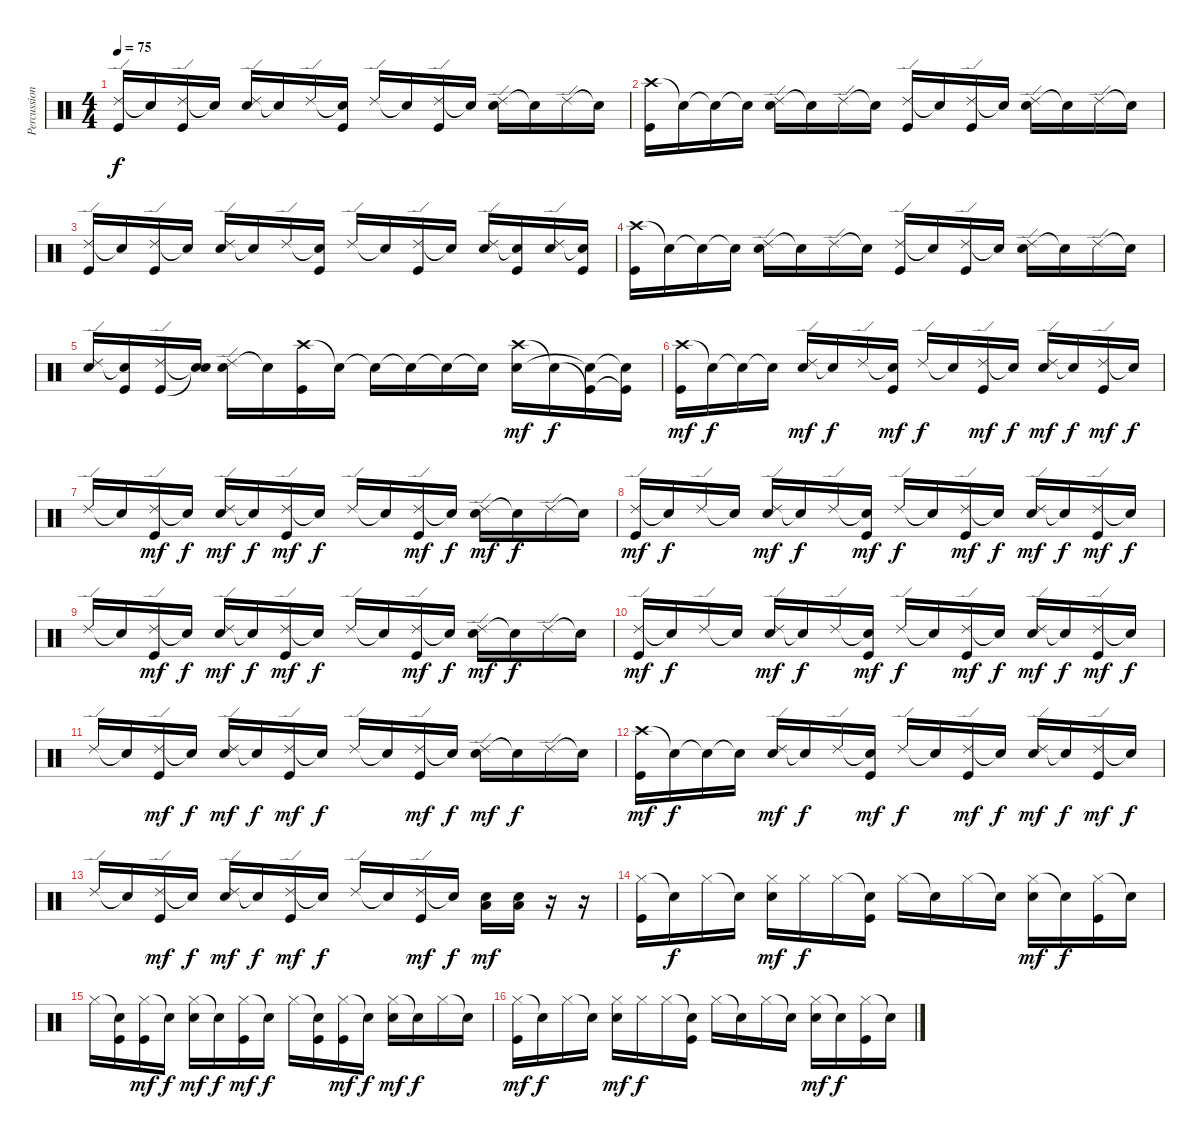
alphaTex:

\track ("Percussion" "Percussion") {instrument percussion}
\staff {score}
\articulation defaults
\ts (4 4)
\tempo 75
\clef neutral
\ks c
("Ride (edge) 2" "Kick (hit)").16{dy f} "Snare (hit)"{t}.16 ("Ride (edge) 2" "Kick (hit)").16 "Snare (hit)"{t}.16 ("Ride (edge) 2" "Electric Snare (hit)").16 "Snare (hit)"{t}.16 "Ride (edge) 2".16 ("Snare (hit)"{t} "Kick (hit)").16 "Ride (edge) 2".16 "Snare (hit)"{t}.16 ("Ride (edge) 2" "Kick (hit)").16 "Snare (hit)"{t}.16 ("Ride (edge) 2" "Electric Snare (hit)").16 "Snare (hit)"{t}.16 "Ride (edge) 2".16 "Snare (hit)"{t}.16 |
("Crash high (hit)" "Kick (hit)").16 "Snare (hit)"{t}.16 "Snare (hit)"{t}.16 "Snare (hit)"{t}.16 ("Ride (edge) 2" "Electric Snare (hit)").16 "Snare (hit)"{t}.16 "Ride (edge) 2".16 "Snare (hit)"{t}.16 ("Ride (edge) 2" "Kick (hit)").16 "Snare (hit)"{t}.16 ("Ride (edge) 2" "Kick (hit)").16 "Snare (hit)"{t}.16 ("Ride (edge) 2" "Electric Snare (hit)").16 "Snare (hit)"{t}.16 "Ride (edge) 2".16 "Snare (hit)"{t}.16 |
("Ride (edge) 2" "Kick (hit)").16 "Snare (hit)"{t}.16 ("Ride (edge) 2" "Kick (hit)").16 "Snare (hit)"{t}.16 ("Ride (edge) 2" "Electric Snare (hit)").16 "Snare (hit)"{t}.16 "Ride (edge) 2".16 ("Snare (hit)"{t} "Kick (hit)").16 "Ride (edge) 2".16 "Snare (hit)"{t}.16 ("Ride (edge) 2" "Kick (hit)").16 "Snare (hit)"{t}.16 ("Ride (edge) 2" "Electric Snare (hit)").16 ("Snare (hit)"{t} "Kick (hit)").16 ("Ride (edge) 2" "Electric Snare (hit)").16 ("Snare (hit)"{t} "Kick (hit)").16 |
("Crash high (hit)" "Kick (hit)").16 "Snare (hit)"{t}.16 "Snare (hit)"{t}.16 "Snare (hit)"{t}.16 ("Ride (edge) 2" "Electric Snare (hit)").16 "Snare (hit)"{t}.16 "Ride (edge) 2".16 "Snare (hit)"{t}.16 ("Ride (edge) 2" "Kick (hit)").16 "Snare (hit)"{t}.16 ("Ride (edge) 2" "Kick (hit)").16 "Snare (hit)"{t}.16 ("Ride (edge) 2" "Electric Snare (hit)").16 "Snare (hit)"{t}.16 "Ride (edge) 2".16 "Snare (hit)"{t}.16 |
("Ride (edge) 2" "Electric Snare (hit)").16 ("Snare (hit)"{t} "Kick (hit)").16 ("Ride (edge) 2" "Kick (hit)").16 ("Snare (hit)"{t} "Electric Snare (hit)"{t}).16 ("Ride (edge) 2" "Electric Snare (hit)").16 "Snare (hit)"{t}.16 ("Crash high (hit)" "Kick (hit)").16 "Snare (hit)"{t}.16 "Snare (hit)"{t}.16 "Snare (hit)"{t}.16 "Snare (hit)"{t}.16 "Snare (hit)"{t}.16 ("Crash high (hit)" "Electric Snare (hit)").16{dy mf} "Snare (hit)"{t}.16{dy f} ("Kick (hit)"{t} "Electric Snare (hit)"{t}).16 ("Kick (hit)"{t} "Electric Snare (hit)"{t}).16 |
("Crash high (hit)" "Kick (hit)").16{dy mf} "Snare (hit)"{t}.16{dy f} "Snare (hit)"{t}.16 "Snare (hit)"{t}.16 ("Ride (edge) 2" "Electric Snare (hit)").16{dy mf} "Snare (hit)"{t}.16{dy f} "Ride (edge) 2".16 ("Snare (hit)"{t} "Kick (hit)").16{dy mf} "Ride (edge) 2".16{dy f} "Snare (hit)"{t}.16 ("Ride (edge) 2" "Kick (hit)").16{dy mf} "Snare (hit)"{t}.16{dy f} ("Ride (edge) 2" "Electric Snare (hit)").16{dy mf} "Snare (hit)"{t}.16{dy f} ("Ride (edge) 2" "Kick (hit)").16{dy mf} "Snare (hit)"{t}.16{dy f} |
"Ride (edge) 2".16 "Snare (hit)"{t}.16 ("Ride (edge) 2" "Kick (hit)").16{dy mf} "Snare (hit)"{t}.16{dy f} ("Ride (edge) 2" "Electric Snare (hit)").16{dy mf} "Snare (hit)"{t}.16{dy f} ("Ride (edge) 2" "Kick (hit)").16{dy mf} "Snare (hit)"{t}.16{dy f} "Ride (edge) 2".16 "Snare (hit)"{t}.16 ("Ride (edge) 2" "Kick (hit)").16{dy mf} "Snare (hit)"{t}.16{dy f} ("Ride (edge) 2" "Electric Snare (hit)").16{dy mf} "Snare (hit)"{t}.16{dy f} "Ride (edge) 2".16 "Snare (hit)"{t}.16 |
("Ride (edge) 2" "Kick (hit)").16{dy mf} "Snare (hit)"{t}.16{dy f} "Ride (edge) 2".16 "Snare (hit)"{t}.16 ("Ride (edge) 2" "Electric Snare (hit)").16{dy mf} "Snare (hit)"{t}.16{dy f} "Ride (edge) 2".16 ("Snare (hit)"{t} "Kick (hit)").16{dy mf} "Ride (edge) 2".16{dy f} "Snare (hit)"{t}.16 ("Ride (edge) 2" "Kick (hit)").16{dy mf} "Snare (hit)"{t}.16{dy f} ("Ride (edge) 2" "Electric Snare (hit)").16{dy mf} "Snare (hit)"{t}.16{dy f} ("Ride (edge) 2" "Kick (hit)").16{dy mf} "Snare (hit)"{t}.16{dy f} |
"Ride (edge) 2".16 "Snare (hit)"{t}.16 ("Ride (edge) 2" "Kick (hit)").16{dy mf} "Snare (hit)"{t}.16{dy f} ("Ride (edge) 2" "Electric Snare (hit)").16{dy mf} "Snare (hit)"{t}.16{dy f} ("Ride (edge) 2" "Kick (hit)").16{dy mf} "Snare (hit)"{t}.16{dy f} "Ride (edge) 2".16 "Snare (hit)"{t}.16 ("Ride (edge) 2" "Kick (hit)").16{dy mf} "Snare (hit)"{t}.16{dy f} ("Ride (edge) 2" "Electric Snare (hit)").16{dy mf} "Snare (hit)"{t}.16{dy f} "Ride (edge) 2".16 "Snare (hit)"{t}.16 |
("Ride (edge) 2" "Kick (hit)").16{dy mf} "Snare (hit)"{t}.16{dy f} "Ride (edge) 2".16 "Snare (hit)"{t}.16 ("Ride (edge) 2" "Electric Snare (hit)").16{dy mf} "Snare (hit)"{t}.16{dy f} "Ride (edge) 2".16 ("Snare (hit)"{t} "Kick (hit)").16{dy mf} "Ride (edge) 2".16{dy f} "Snare (hit)"{t}.16 ("Ride (edge) 2" "Kick (hit)").16{dy mf} "Snare (hit)"{t}.16{dy f} ("Ride (edge) 2" "Electric Snare (hit)").16{dy mf} "Snare (hit)"{t}.16{dy f} ("Ride (edge) 2" "Kick (hit)").16{dy mf} "Snare (hit)"{t}.16{dy f} |
"Ride (edge) 2".16 "Snare (hit)"{t}.16 ("Ride (edge) 2" "Kick (hit)").16{dy mf} "Snare (hit)"{t}.16{dy f} ("Ride (edge) 2" "Electric Snare (hit)").16{dy mf} "Snare (hit)"{t}.16{dy f} ("Ride (edge) 2" "Kick (hit)").16{dy mf} "Snare (hit)"{t}.16{dy f} "Ride (edge) 2".16 "Snare (hit)"{t}.16 ("Ride (edge) 2" "Kick (hit)").16{dy mf} "Snare (hit)"{t}.16{dy f} ("Ride (edge) 2" "Electric Snare (hit)").16{dy mf} "Snare (hit)"{t}.16{dy f} "Ride (edge) 2".16 "Snare (hit)"{t}.16 |
("Crash high (hit)" "Kick (hit)").16{dy mf} "Snare (hit)"{t}.16{dy f} "Snare (hit)"{t}.16 "Snare (hit)"{t}.16 ("Ride (edge) 2" "Electric Snare (hit)").16{dy mf} "Snare (hit)"{t}.16{dy f} "Ride (edge) 2".16 ("Snare (hit)"{t} "Kick (hit)").16{dy mf} "Ride (edge) 2".16{dy f} "Snare (hit)"{t}.16 ("Ride (edge) 2" "Kick (hit)").16{dy mf} "Snare (hit)"{t}.16{dy f} ("Ride (edge) 2" "Electric Snare (hit)").16{dy mf} "Snare (hit)"{t}.16{dy f} ("Ride (edge) 2" "Kick (hit)").16{dy mf} "Snare (hit)"{t}.16{dy f} |
"Ride (edge) 2".16 "Snare (hit)"{t}.16 ("Ride (edge) 2" "Kick (hit)").16{dy mf} "Snare (hit)"{t}.16{dy f} ("Ride (edge) 2" "Electric Snare (hit)").16{dy mf} "Snare (hit)"{t}.16{dy f} ("Ride (edge) 2" "Kick (hit)").16{dy mf} "Snare (hit)"{t}.16{dy f} "Ride (edge) 2".16 "Snare (hit)"{t}.16 ("Ride (edge) 2" "Kick (hit)").16{dy mf} "Snare (hit)"{t}.16{dy f} ("Low Floor Tom (hit)" "Electric Snare (hit)").16{dy mf} ("Low Floor Tom (hit)" "Electric Snare (hit)").16 r.16 r.16 |
("Hi-Hat (closed)" "Kick (hit)").16 "Snare (hit)"{t}.16{dy f} "Hi-Hat (closed)".16 "Snare (hit)"{t}.16 ("Hi-Hat (closed)" "Electric Snare (hit)").16{dy mf} "Hi-Hat (closed)".16{dy f} "Hi-Hat (closed)".16 ("Snare (hit)"{t} "Kick (hit)").16 "Hi-Hat (closed)".16 "Snare (hit)"{t}.16 "Hi-Hat (closed)".16 "Snare (hit)"{t}.16 ("Hi-Hat (closed)" "Electric Snare (hit)").16{dy mf} "Snare (hit)"{t}.16{dy f} ("Hi-Hat (closed)" "Kick (hit)").16 "Snare (hit)"{t}.16 |
"Hi-Hat (closed)".16 ("Snare (hit)"{t} "Kick (hit)").16 ("Hi-Hat (closed)" "Kick (hit)").16{dy mf} "Snare (hit)"{t}.16{dy f} ("Hi-Hat (closed)" "Electric Snare (hit)").16{dy mf} "Snare (hit)"{t}.16{dy f} ("Hi-Hat (closed)" "Kick (hit)").16{dy mf} "Snare (hit)"{t}.16{dy f} "Hi-Hat (closed)".16 ("Snare (hit)"{t} "Kick (hit)").16 ("Hi-Hat (closed)" "Kick (hit)").16{dy mf} "Snare (hit)"{t}.16{dy f} ("Hi-Hat (closed)" "Electric Snare (hit)").16{dy mf} "Snare (hit)"{t}.16{dy f} "Hi-Hat (closed)".16 "Snare (hit)"{t}.16 |
("Hi-Hat (closed)" "Kick (hit)").16{dy mf} "Snare (hit)"{t}.16{dy f} "Hi-Hat (closed)".16 "Snare (hit)"{t}.16 ("Hi-Hat (closed)" "Electric Snare (hit)").16{dy mf} "Hi-Hat (closed)".16{dy f} "Hi-Hat (closed)".16 ("Snare (hit)"{t} "Kick (hit)").16 "Hi-Hat (closed)".16 "Snare (hit)"{t}.16 "Hi-Hat (closed)".16 "Snare (hit)"{t}.16 ("Hi-Hat (closed)" "Electric Snare (hit)").16{dy mf} "Snare (hit)"{t}.16{dy f} ("Hi-Hat (closed)" "Kick (hit)").16 "Snare (hit)"{t}.16
